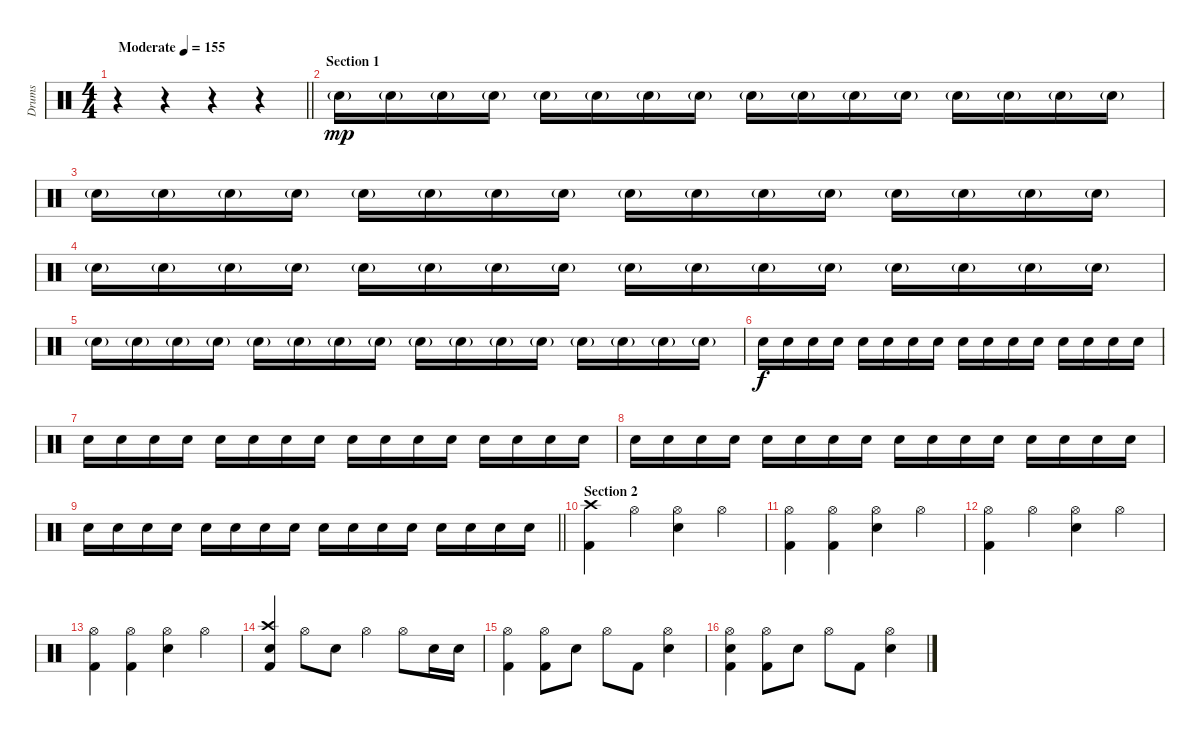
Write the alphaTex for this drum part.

\track ("Drums" "Drums") {instrument percussion}
\staff {score}
\articulation defaults
\ts (4 4)
\tempo (155 "Moderate")
\clef neutral
\barLineRight lightlight
\ks c
r.4{dy mp} r.4 r.4 r.4 |
\section ("" "Section 1")
"Snare (hit) 2"{g}.16 "Snare (hit) 2"{g}.16 "Snare (hit) 2"{g}.16 "Snare (hit) 2"{g}.16 "Snare (hit) 2"{g}.16 "Snare (hit) 2"{g}.16 "Snare (hit) 2"{g}.16 "Snare (hit) 2"{g}.16 "Snare (hit) 2"{g}.16 "Snare (hit) 2"{g}.16 "Snare (hit) 2"{g}.16 "Snare (hit) 2"{g}.16 "Snare (hit) 2"{g}.16 "Snare (hit) 2"{g}.16 "Snare (hit) 2"{g}.16 "Snare (hit) 2"{g}.16 |
"Snare (hit) 2"{g}.16 "Snare (hit) 2"{g}.16 "Snare (hit) 2"{g}.16 "Snare (hit) 2"{g}.16 "Snare (hit) 2"{g}.16 "Snare (hit) 2"{g}.16 "Snare (hit) 2"{g}.16 "Snare (hit) 2"{g}.16 "Snare (hit) 2"{g}.16 "Snare (hit) 2"{g}.16 "Snare (hit) 2"{g}.16 "Snare (hit) 2"{g}.16 "Snare (hit) 2"{g}.16 "Snare (hit) 2"{g}.16 "Snare (hit) 2"{g}.16 "Snare (hit) 2"{g}.16 |
"Snare (hit) 2"{g}.16 "Snare (hit) 2"{g}.16 "Snare (hit) 2"{g}.16 "Snare (hit) 2"{g}.16 "Snare (hit) 2"{g}.16 "Snare (hit) 2"{g}.16 "Snare (hit) 2"{g}.16 "Snare (hit) 2"{g}.16 "Snare (hit) 2"{g}.16 "Snare (hit) 2"{g}.16 "Snare (hit) 2"{g}.16 "Snare (hit) 2"{g}.16 "Snare (hit) 2"{g}.16 "Snare (hit) 2"{g}.16 "Snare (hit) 2"{g}.16 "Snare (hit) 2"{g}.16 |
"Snare (hit) 2"{g}.16 "Snare (hit) 2"{g}.16 "Snare (hit) 2"{g}.16 "Snare (hit) 2"{g}.16 "Snare (hit) 2"{g}.16 "Snare (hit) 2"{g}.16 "Snare (hit) 2"{g}.16 "Snare (hit) 2"{g}.16 "Snare (hit) 2"{g}.16 "Snare (hit) 2"{g}.16 "Snare (hit) 2"{g}.16 "Snare (hit) 2"{g}.16 "Snare (hit) 2"{g}.16 "Snare (hit) 2"{g}.16 "Snare (hit) 2"{g}.16 "Snare (hit) 2"{g}.16 |
"Snare (hit) 2".16{dy f} "Snare (hit) 2".16 "Snare (hit) 2".16 "Snare (hit) 2".16 "Snare (hit) 2".16 "Snare (hit) 2".16 "Snare (hit) 2".16 "Snare (hit) 2".16 "Snare (hit) 2".16 "Snare (hit) 2".16 "Snare (hit) 2".16 "Snare (hit) 2".16 "Snare (hit) 2".16 "Snare (hit) 2".16 "Snare (hit) 2".16 "Snare (hit) 2".16 |
"Snare (hit) 2".16 "Snare (hit) 2".16 "Snare (hit) 2".16 "Snare (hit) 2".16 "Snare (hit) 2".16 "Snare (hit) 2".16 "Snare (hit) 2".16 "Snare (hit) 2".16 "Snare (hit) 2".16 "Snare (hit) 2".16 "Snare (hit) 2".16 "Snare (hit) 2".16 "Snare (hit) 2".16 "Snare (hit) 2".16 "Snare (hit) 2".16 "Snare (hit) 2".16 |
"Snare (hit) 2".16{volume 16} "Snare (hit) 2".16 "Snare (hit) 2".16 "Snare (hit) 2".16 "Snare (hit) 2".16 "Snare (hit) 2".16 "Snare (hit) 2".16 "Snare (hit) 2".16 "Snare (hit) 2".16 "Snare (hit) 2".16 "Snare (hit) 2".16 "Snare (hit) 2".16 "Snare (hit) 2".16 "Snare (hit) 2".16 "Snare (hit) 2".16 "Snare (hit) 2".16 |
\barLineRight lightlight "Snare (hit) 2".16 "Snare (hit) 2".16 "Snare (hit) 2".16 "Snare (hit) 2".16 "Snare (hit) 2".16 "Snare (hit) 2".16 "Snare (hit) 2".16 "Snare (hit) 2".16 "Snare (hit) 2".16 "Snare (hit) 2".16 "Snare (hit) 2".16 "Snare (hit) 2".16 "Snare (hit) 2".16 "Snare (hit) 2".16 "Snare (hit) 2".16 "Snare (hit) 2".16
|
\section ("" "Section 2")
("Crash high (hit)" "Kick (hit) 2").4 "Hi-Hat (open)".4 ("Hi-Hat (open)" "Snare (hit) 2").4 "Hi-Hat (open)".4 |
("Hi-Hat (open)" "Kick (hit) 2").4 ("Hi-Hat (open)" "Kick (hit) 2").4 ("Hi-Hat (open)" "Snare (hit) 2").4 "Hi-Hat (open)".4 |
("Hi-Hat (open)" "Kick (hit) 2").4 "Hi-Hat (open)".4 ("Hi-Hat (open)" "Snare (hit) 2").4 "Hi-Hat (open)".4 |
("Hi-Hat (open)" "Kick (hit) 2").4 ("Hi-Hat (open)" "Kick (hit) 2").4 ("Hi-Hat (open)" "Snare (hit) 2").4 "Hi-Hat (open)".4 |
("Crash high (hit)" "Snare (hit) 2" "Kick (hit) 2").4 "Hi-Hat (open)".8 "Snare (hit) 2".8 "Hi-Hat (open)".4 "Hi-Hat (open)".8 "Snare (hit) 2".16 "Snare (hit) 2".16 |
("Hi-Hat (open)" "Kick (hit) 2").4 ("Hi-Hat (open)" "Kick (hit) 2").8 "Snare (hit) 2".8 "Hi-Hat (open)".8 "Kick (hit) 2".8 ("Hi-Hat (open)" "Snare (hit) 2").4 |
("Hi-Hat (open)" "Snare (hit) 2" "Kick (hit) 2").4 ("Hi-Hat (open)" "Kick (hit) 2").8 "Snare (hit) 2".8 "Hi-Hat (open)".8 "Kick (hit) 2".8 ("Hi-Hat (open)" "Snare (hit) 2").4
